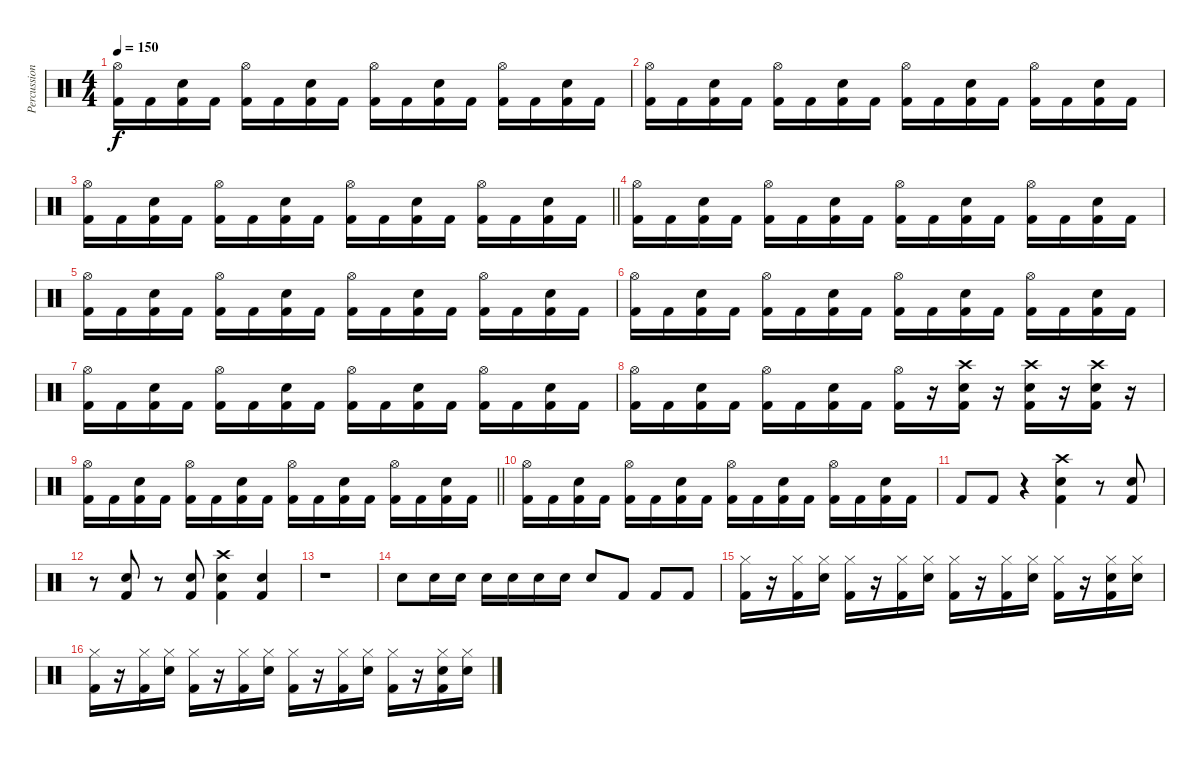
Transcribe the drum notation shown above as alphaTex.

\track ("Percussions" "Percussion") {instrument percussion}
\staff {score}
\articulation defaults
\ts (4 4)
\tempo 150
\clef neutral
\ks c
("Hi-Hat (open)" "Kick (hit) 2").16{dy f} "Kick (hit) 2".16 ("Snare (hit) 2" "Kick (hit) 2").16 "Kick (hit) 2".16 ("Hi-Hat (open)" "Kick (hit) 2").16 "Kick (hit) 2".16 ("Snare (hit) 2" "Kick (hit) 2").16 "Kick (hit) 2".16 ("Hi-Hat (open)" "Kick (hit) 2").16 "Kick (hit) 2".16 ("Snare (hit) 2" "Kick (hit) 2").16 "Kick (hit) 2".16 ("Hi-Hat (open)" "Kick (hit) 2").16 "Kick (hit) 2".16 ("Snare (hit) 2" "Kick (hit) 2").16 "Kick (hit) 2".16 |
("Hi-Hat (open)" "Kick (hit) 2").16 "Kick (hit) 2".16 ("Snare (hit) 2" "Kick (hit) 2").16 "Kick (hit) 2".16 ("Hi-Hat (open)" "Kick (hit) 2").16 "Kick (hit) 2".16 ("Snare (hit) 2" "Kick (hit) 2").16 "Kick (hit) 2".16 ("Hi-Hat (open)" "Kick (hit) 2").16 "Kick (hit) 2".16 ("Snare (hit) 2" "Kick (hit) 2").16 "Kick (hit) 2".16 ("Hi-Hat (open)" "Kick (hit) 2").16 "Kick (hit) 2".16 ("Snare (hit) 2" "Kick (hit) 2").16 "Kick (hit) 2".16 |
\barLineRight lightlight
("Hi-Hat (open)" "Kick (hit) 2").16 "Kick (hit) 2".16 ("Snare (hit) 2" "Kick (hit) 2").16 "Kick (hit) 2".16 ("Hi-Hat (open)" "Kick (hit) 2").16 "Kick (hit) 2".16 ("Snare (hit) 2" "Kick (hit) 2").16 "Kick (hit) 2".16 ("Hi-Hat (open)" "Kick (hit) 2").16 "Kick (hit) 2".16 ("Snare (hit) 2" "Kick (hit) 2").16 "Kick (hit) 2".16 ("Hi-Hat (open)" "Kick (hit) 2").16 "Kick (hit) 2".16 ("Snare (hit) 2" "Kick (hit) 2").16 "Kick (hit) 2".16 |
\section ("" "")
("Hi-Hat (open)" "Kick (hit) 2").16 "Kick (hit) 2".16 ("Snare (hit) 2" "Kick (hit) 2").16 "Kick (hit) 2".16 ("Hi-Hat (open)" "Kick (hit) 2").16 "Kick (hit) 2".16 ("Snare (hit) 2" "Kick (hit) 2").16 "Kick (hit) 2".16 ("Hi-Hat (open)" "Kick (hit) 2").16 "Kick (hit) 2".16 ("Snare (hit) 2" "Kick (hit) 2").16 "Kick (hit) 2".16 ("Hi-Hat (open)" "Kick (hit) 2").16 "Kick (hit) 2".16 ("Snare (hit) 2" "Kick (hit) 2").16 "Kick (hit) 2".16 |
("Hi-Hat (open)" "Kick (hit) 2").16 "Kick (hit) 2".16 ("Snare (hit) 2" "Kick (hit) 2").16 "Kick (hit) 2".16 ("Hi-Hat (open)" "Kick (hit) 2").16 "Kick (hit) 2".16 ("Snare (hit) 2" "Kick (hit) 2").16 "Kick (hit) 2".16 ("Hi-Hat (open)" "Kick (hit) 2").16 "Kick (hit) 2".16 ("Snare (hit) 2" "Kick (hit) 2").16 "Kick (hit) 2".16 ("Hi-Hat (open)" "Kick (hit) 2").16 "Kick (hit) 2".16 ("Snare (hit) 2" "Kick (hit) 2").16 "Kick (hit) 2".16 |
("Hi-Hat (open)" "Kick (hit) 2").16 "Kick (hit) 2".16 ("Snare (hit) 2" "Kick (hit) 2").16 "Kick (hit) 2".16 ("Hi-Hat (open)" "Kick (hit) 2").16 "Kick (hit) 2".16 ("Snare (hit) 2" "Kick (hit) 2").16 "Kick (hit) 2".16 ("Hi-Hat (open)" "Kick (hit) 2").16 "Kick (hit) 2".16 ("Snare (hit) 2" "Kick (hit) 2").16 "Kick (hit) 2".16 ("Hi-Hat (open)" "Kick (hit) 2").16 "Kick (hit) 2".16 ("Snare (hit) 2" "Kick (hit) 2").16 "Kick (hit) 2".16 |
("Hi-Hat (open)" "Kick (hit) 2").16 "Kick (hit) 2".16 ("Snare (hit) 2" "Kick (hit) 2").16 "Kick (hit) 2".16 ("Hi-Hat (open)" "Kick (hit) 2").16 "Kick (hit) 2".16 ("Snare (hit) 2" "Kick (hit) 2").16 "Kick (hit) 2".16 ("Hi-Hat (open)" "Kick (hit) 2").16 "Kick (hit) 2".16 ("Snare (hit) 2" "Kick (hit) 2").16 "Kick (hit) 2".16 ("Hi-Hat (open)" "Kick (hit) 2").16 "Kick (hit) 2".16 ("Snare (hit) 2" "Kick (hit) 2").16 "Kick (hit) 2".16 |
("Hi-Hat (open)" "Kick (hit) 2").16 "Kick (hit) 2".16 ("Snare (hit) 2" "Kick (hit) 2").16 "Kick (hit) 2".16 ("Hi-Hat (open)" "Kick (hit) 2").16 "Kick (hit) 2".16 ("Snare (hit) 2" "Kick (hit) 2").16 "Kick (hit) 2".16 ("Hi-Hat (open)" "Kick (hit) 2").16 r.16 ("Crash high (hit)" "Snare (hit) 2" "Kick (hit) 2").16 r.16 ("Crash high (hit)" "Snare (hit) 2" "Kick (hit) 2").16 r.16 ("Crash high (hit)" "Snare (hit) 2" "Kick (hit) 2").16 r.16 |
\barLineRight lightlight
("Hi-Hat (open)" "Kick (hit) 2").16 "Kick (hit) 2".16 ("Snare (hit) 2" "Kick (hit) 2").16 "Kick (hit) 2".16 ("Hi-Hat (open)" "Kick (hit) 2").16 "Kick (hit) 2".16 ("Snare (hit) 2" "Kick (hit) 2").16 "Kick (hit) 2".16 ("Hi-Hat (open)" "Kick (hit) 2").16 "Kick (hit) 2".16 ("Snare (hit) 2" "Kick (hit) 2").16 "Kick (hit) 2".16 ("Hi-Hat (open)" "Kick (hit) 2").16 "Kick (hit) 2".16 ("Snare (hit) 2" "Kick (hit) 2").16 "Kick (hit) 2".16 |
("Hi-Hat (open)" "Kick (hit) 2").16 "Kick (hit) 2".16 ("Snare (hit) 2" "Kick (hit) 2").16 "Kick (hit) 2".16 ("Hi-Hat (open)" "Kick (hit) 2").16 "Kick (hit) 2".16 ("Snare (hit) 2" "Kick (hit) 2").16 "Kick (hit) 2".16 ("Hi-Hat (open)" "Kick (hit) 2").16 "Kick (hit) 2".16 ("Snare (hit) 2" "Kick (hit) 2").16 "Kick (hit) 2".16 ("Hi-Hat (open)" "Kick (hit) 2").16 "Kick (hit) 2".16 ("Snare (hit) 2" "Kick (hit) 2").16 "Kick (hit) 2".16 |
"Kick (hit) 2".8 "Kick (hit) 2".8 r.4 ("Crash high (hit)" "Snare (hit) 2" "Kick (hit) 2").4 r.8 ("Snare (hit) 2" "Kick (hit) 2").8 |
r.8 ("Snare (hit) 2" "Kick (hit) 2").8 r.8 ("Snare (hit) 2" "Kick (hit) 2").8 ("Crash high (hit)" "Snare (hit) 2" "Kick (hit) 2").4 ("Snare (hit) 2" "Kick (hit) 2").4 |
r.1 |
"Snare (hit) 2".8 "Snare (hit) 2".16 "Snare (hit) 2".16 "Snare (hit) 2".16 "Snare (hit) 2".16 "Snare (hit) 2".16 "Snare (hit) 2".16 "Snare (hit) 2".8 "Kick (hit) 2".8 "Kick (hit) 2".8 "Kick (hit) 2".8 |
("Hi-Hat (closed)" "Kick (hit) 2").16 r.16 ("Hi-Hat (closed)" "Kick (hit) 2").16 ("Hi-Hat (closed)" "Snare (hit) 2").16 ("Hi-Hat (closed)" "Kick (hit) 2").16 r.16 ("Hi-Hat (closed)" "Kick (hit) 2").16 ("Hi-Hat (closed)" "Snare (hit) 2").16 ("Hi-Hat (closed)" "Kick (hit) 2").16 r.16 ("Hi-Hat (closed)" "Kick (hit) 2").16 ("Hi-Hat (closed)" "Snare (hit) 2").16 ("Hi-Hat (closed)" "Kick (hit) 2").16 r.16 ("Hi-Hat (closed)" "Snare (hit) 2" "Kick (hit) 2").16 ("Hi-Hat (closed)" "Snare (hit) 2").16 |
("Hi-Hat (closed)" "Kick (hit) 2").16 r.16 ("Hi-Hat (closed)" "Kick (hit) 2").16 ("Hi-Hat (closed)" "Snare (hit) 2").16 ("Hi-Hat (closed)" "Kick (hit) 2").16 r.16 ("Hi-Hat (closed)" "Kick (hit) 2").16 ("Hi-Hat (closed)" "Snare (hit) 2").16 ("Hi-Hat (closed)" "Kick (hit) 2").16 r.16 ("Hi-Hat (closed)" "Kick (hit) 2").16 ("Hi-Hat (closed)" "Snare (hit) 2").16 ("Hi-Hat (closed)" "Kick (hit) 2").16 r.16 ("Hi-Hat (closed)" "Snare (hit) 2" "Kick (hit) 2").16 ("Hi-Hat (closed)" "Snare (hit) 2").16
